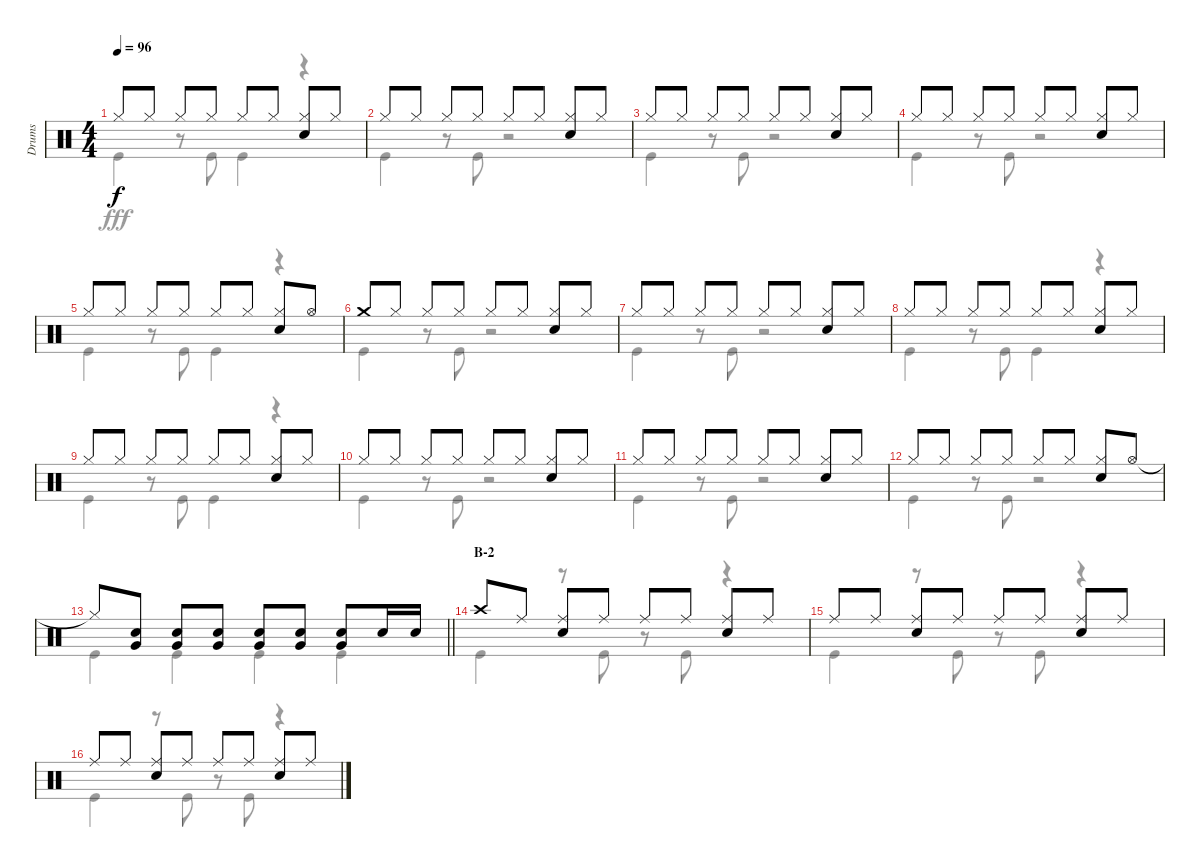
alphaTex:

\track ("Drums" "Drums") {instrument percussion}
\staff {score}
\articulation defaults
\voice
\ts (4 4)
\tempo 96
\clef neutral
\ks c "Hi-Hat (closed)".8{dy f} "Hi-Hat (closed)".8 "Hi-Hat (closed)".8 "Hi-Hat (closed)".8 "Hi-Hat (closed)".8 "Hi-Hat (closed)".8
("Hi-Hat (closed)" "Snare (hit) 2").8 "Hi-Hat (closed)".8 |
"Hi-Hat (closed)".8 "Hi-Hat (closed)".8 "Hi-Hat (closed)".8 "Hi-Hat (closed)".8 "Hi-Hat (closed)".8 "Hi-Hat (closed)".8 ("Hi-Hat (closed)" "Snare (hit) 2").8 "Hi-Hat (closed)".8 |
"Hi-Hat (closed)".8 "Hi-Hat (closed)".8 "Hi-Hat (closed)".8 "Hi-Hat (closed)".8 "Hi-Hat (closed)".8 "Hi-Hat (closed)".8 ("Hi-Hat (closed)" "Snare (hit) 2").8 "Hi-Hat (closed)".8 |
"Hi-Hat (closed)".8 "Hi-Hat (closed)".8 "Hi-Hat (closed)".8 "Hi-Hat (closed)".8 "Hi-Hat (closed)".8 "Hi-Hat (closed)".8 ("Hi-Hat (closed)" "Snare (hit) 2").8 "Hi-Hat (closed)".8 |
"Hi-Hat (closed)".8 "Hi-Hat (closed)".8 "Hi-Hat (closed)".8 "Hi-Hat (closed)".8 "Hi-Hat (closed)".8 "Hi-Hat (closed)".8 ("Hi-Hat (closed)" "Snare (hit) 2").8 "Hi-Hat (open)".8 |
"Crash medium (hit)".8 "Hi-Hat (closed)".8 "Hi-Hat (closed)".8 "Hi-Hat (closed)".8 "Hi-Hat (closed)".8 "Hi-Hat (closed)".8 ("Hi-Hat (closed)" "Snare (hit) 2").8 "Hi-Hat (closed)".8 |
"Hi-Hat (closed)".8 "Hi-Hat (closed)".8 "Hi-Hat (closed)".8 "Hi-Hat (closed)".8 "Hi-Hat (closed)".8 "Hi-Hat (closed)".8 ("Hi-Hat (closed)" "Snare (hit) 2").8 "Hi-Hat (closed)".8 |
"Hi-Hat (closed)".8 "Hi-Hat (closed)".8 "Hi-Hat (closed)".8 "Hi-Hat (closed)".8 "Hi-Hat (closed)".8 "Hi-Hat (closed)".8 ("Hi-Hat (closed)" "Snare (hit) 2").8 "Hi-Hat (closed)".8 |
"Hi-Hat (closed)".8 "Hi-Hat (closed)".8 "Hi-Hat (closed)".8 "Hi-Hat (closed)".8 "Hi-Hat (closed)".8 "Hi-Hat (closed)".8 ("Hi-Hat (closed)" "Snare (hit) 2").8 "Hi-Hat (closed)".8 |
"Hi-Hat (closed)".8 "Hi-Hat (closed)".8 "Hi-Hat (closed)".8 "Hi-Hat (closed)".8 "Hi-Hat (closed)".8 "Hi-Hat (closed)".8 ("Hi-Hat (closed)" "Snare (hit) 2").8 "Hi-Hat (closed)".8 |
"Hi-Hat (closed)".8 "Hi-Hat (closed)".8 "Hi-Hat (closed)".8 "Hi-Hat (closed)".8 "Hi-Hat (closed)".8 "Hi-Hat (closed)".8 ("Hi-Hat (closed)" "Snare (hit) 2").8 "Hi-Hat (closed)".8 |
"Hi-Hat (closed)".8 "Hi-Hat (closed)".8 "Hi-Hat (closed)".8 "Hi-Hat (closed)".8 "Hi-Hat (closed)".8 "Hi-Hat (closed)".8 ("Hi-Hat (closed)" "Snare (hit) 2").8 "Hi-Hat (open)".8 |
\barLineRight lightlight "Hi-Hat (closed)"{t}.8
("Snare (hit) 2" "Very Low Tom (hit)").8 ("Snare (hit) 2" "Very Low Tom (hit)").8 ("Snare (hit) 2" "Very Low Tom (hit)").8 ("Snare (hit) 2" "Very Low Tom (hit)").8 ("Snare (hit) 2" "Very Low Tom (hit)").8 ("Snare (hit) 2" "Very Low Tom (hit)").8 "Snare (hit) 2".16 "Snare (hit) 2".16 |
\section ("" "B-2")
"Crash high (hit)".8 "Ride (middle)".8 ("Ride (middle)" "Snare (hit) 2").8 "Ride (middle)".8 "Ride (middle)".8 "Ride (middle)".8 ("Ride (middle)" "Snare (hit) 2").8 "Ride (middle)".8 |
"Ride (middle)".8 "Ride (middle)".8 ("Ride (middle)" "Snare (hit) 2").8 "Ride (middle)".8 "Ride (middle)".8 "Ride (middle)".8 ("Ride (middle)" "Snare (hit) 2").8 "Ride (middle)".8 |
"Ride (middle)".8 "Ride (middle)".8 ("Ride (middle)" "Snare (hit) 2").8 "Ride (middle)".8 "Ride (middle)".8 "Ride (middle)".8 ("Ride (middle)" "Snare (hit) 2").8 "Ride (middle)".8
\voice
\clef neutral
\ottava regular
\simile none
\ks c "Kick (hit)".4{dy fff}
r.8 "Kick (hit)".8 "Kick (hit)".4 r.4 |
"Kick (hit)".4 r.8 "Kick (hit)".8 r.2 |
"Kick (hit)".4 r.8 "Kick (hit)".8 r.2 |
"Kick (hit)".4 r.8 "Kick (hit)".8 r.2 |
"Kick (hit)".4 r.8 "Kick (hit)".8 "Kick (hit)".4 r.4 |
"Kick (hit)".4 r.8 "Kick (hit)".8 r.2 |
"Kick (hit)".4 r.8 "Kick (hit)".8 r.2 |
"Kick (hit)".4 r.8 "Kick (hit)".8 "Kick (hit)".4 r.4 |
"Kick (hit)".4 r.8 "Kick (hit)".8 "Kick (hit)".4 r.4 |
"Kick (hit)".4 r.8 "Kick (hit)".8 r.2 |
"Kick (hit)".4 r.8 "Kick (hit)".8 r.2 |
"Kick (hit)".4 r.8 "Kick (hit)".8 r.2 |
\barLineRight lightlight "Kick (hit)".4 "Kick (hit)".4 "Kick (hit)".4 "Kick (hit)".4
|
"Kick (hit)".4 r.8 "Kick (hit)".8 r.8 "Kick (hit)".8 r.4 |
"Kick (hit)".4 r.8 "Kick (hit)".8 r.8 "Kick (hit)".8 r.4 |
"Kick (hit)".4 r.8 "Kick (hit)".8 r.8 "Kick (hit)".8 r.4
